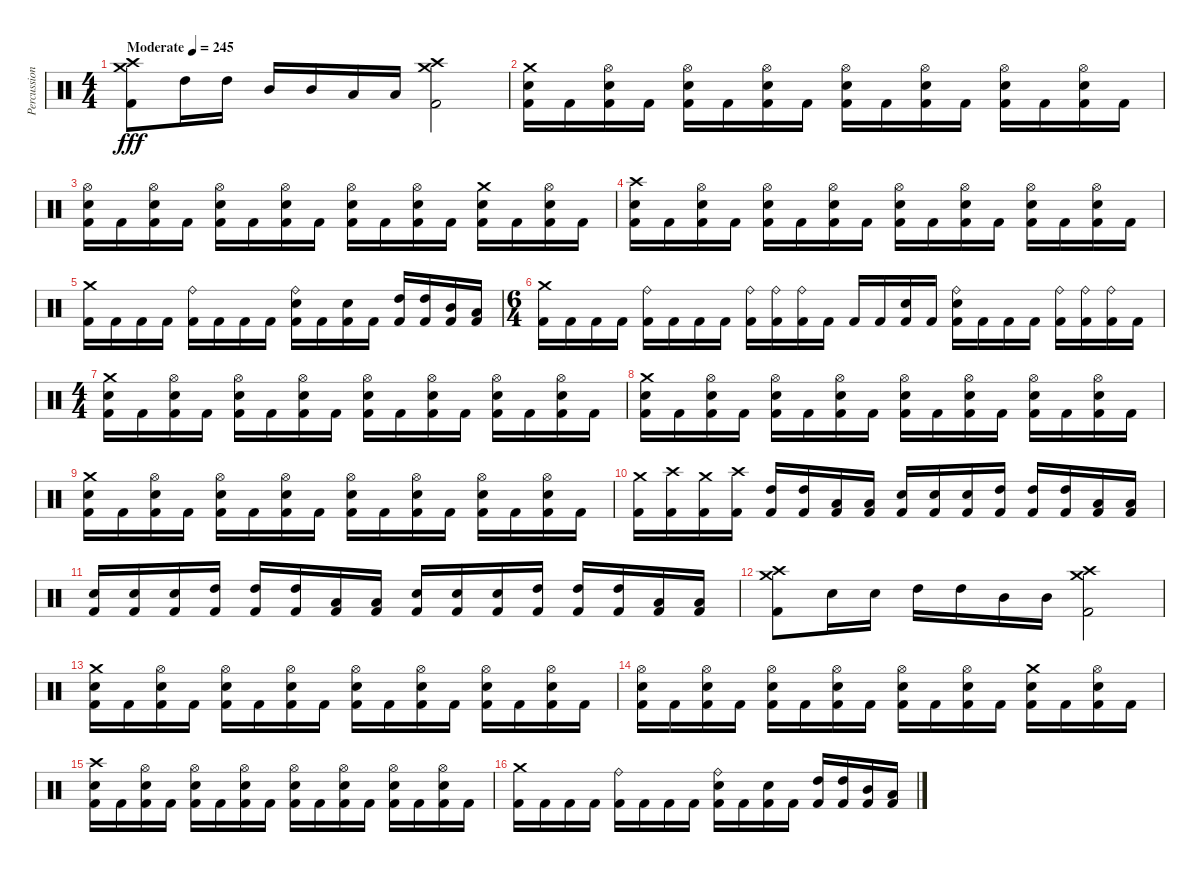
\track ("Percussion" "Percussion") {instrument percussion bank 177}
\staff {score}
\articulation defaults
\ts (4 4)
\tempo (245 "Moderate")
\clef neutral
\ks c
("Crash medium (hit)" "Crash high (hit)" "Kick (hit) 2").8{dy fff} "High Tom (hit)".16 "High Tom (hit)".16 "Mid Tom (hit)".16 "Mid Tom (hit)".16 "Low Tom (hit)".16 "Low Tom (hit)".16 ("Crash medium (hit)" "Crash high (hit)" "Kick (hit) 2").2 |
("Crash medium (hit)" "Electric Snare (hit)" "Kick (hit) 2").16 "Kick (hit) 2".16 ("Hi-Hat (open)" "Electric Snare (hit)" "Kick (hit) 2").16 "Kick (hit) 2".16 ("Hi-Hat (open)" "Electric Snare (hit)" "Kick (hit) 2").16 "Kick (hit) 2".16 ("Hi-Hat (open)" "Electric Snare (hit)" "Kick (hit) 2").16 "Kick (hit) 2".16 ("Hi-Hat (open)" "Electric Snare (hit)" "Kick (hit) 2").16 "Kick (hit) 2".16 ("Hi-Hat (open)" "Electric Snare (hit)" "Kick (hit) 2").16 "Kick (hit) 2".16 ("Hi-Hat (open)" "Electric Snare (hit)" "Kick (hit) 2").16 "Kick (hit) 2".16 ("Hi-Hat (open)" "Electric Snare (hit)" "Kick (hit) 2").16 "Kick (hit) 2".16 |
("Hi-Hat (open)" "Electric Snare (hit)" "Kick (hit) 2").16 "Kick (hit) 2".16 ("Hi-Hat (open)" "Electric Snare (hit)" "Kick (hit) 2").16 "Kick (hit) 2".16 ("Hi-Hat (open)" "Electric Snare (hit)" "Kick (hit) 2").16 "Kick (hit) 2".16 ("Hi-Hat (open)" "Electric Snare (hit)" "Kick (hit) 2").16 "Kick (hit) 2".16 ("Hi-Hat (open)" "Electric Snare (hit)" "Kick (hit) 2").16 "Kick (hit) 2".16 ("Hi-Hat (open)" "Electric Snare (hit)" "Kick (hit) 2").16 "Kick (hit) 2".16 ("Crash medium (hit)" "Electric Snare (hit)" "Kick (hit) 2").16 "Kick (hit) 2".16 ("Hi-Hat (open)" "Electric Snare (hit)" "Kick (hit) 2").16 "Kick (hit) 2".16 |
("Crash high (hit)" "Electric Snare (hit)" "Kick (hit) 2").16 "Kick (hit) 2".16 ("Hi-Hat (open)" "Electric Snare (hit)" "Kick (hit) 2").16 "Kick (hit) 2".16 ("Hi-Hat (open)" "Electric Snare (hit)" "Kick (hit) 2").16 "Kick (hit) 2".16 ("Hi-Hat (open)" "Electric Snare (hit)" "Kick (hit) 2").16 "Kick (hit) 2".16 ("Hi-Hat (open)" "Electric Snare (hit)" "Kick (hit) 2").16 "Kick (hit) 2".16 ("Hi-Hat (open)" "Electric Snare (hit)" "Kick (hit) 2").16 "Kick (hit) 2".16 ("Hi-Hat (open)" "Electric Snare (hit)" "Kick (hit) 2").16 "Kick (hit) 2".16 ("Hi-Hat (open)" "Electric Snare (hit)" "Kick (hit) 2").16 "Kick (hit) 2".16 |
("Crash medium (hit)" "Kick (hit) 2").16 "Kick (hit) 2".16 "Kick (hit) 2".16 "Kick (hit) 2".16 ("Ride (bell)" "Kick (hit) 2").16 "Kick (hit) 2".16 "Kick (hit) 2".16 "Kick (hit) 2".16 ("Ride (bell)" "Electric Snare (hit)" "Kick (hit) 2").16 "Kick (hit) 2".16 ("Electric Snare (hit)" "Kick (hit) 2").16 "Kick (hit) 2".16 ("High Tom (hit)" "Kick (hit) 2").16 ("High Tom (hit)" "Kick (hit) 2").16 ("Mid Tom (hit)" "Kick (hit) 2").16 ("Low Tom (hit)" "Kick (hit) 2").16 |
\ts (6 4)
("Crash medium (hit)" "Kick (hit) 2").16 "Kick (hit) 2".16 "Kick (hit) 2".16 "Kick (hit) 2".16 ("Ride (bell)" "Kick (hit) 2").16 "Kick (hit) 2".16 "Kick (hit) 2".16 "Kick (hit) 2".16 ("Ride (bell)" "Kick (hit) 2").16 ("Ride (bell)" "Kick (hit) 2").16 ("Ride (bell)" "Kick (hit) 2").16 "Kick (hit) 2".16 "Kick (hit) 2".16 "Kick (hit) 2".16 ("Electric Snare (hit)" "Kick (hit) 2").16 "Kick (hit) 2".16 ("Ride (bell)" "Electric Snare (hit)" "Kick (hit) 2").16 "Kick (hit) 2".16 "Kick (hit) 2".16 "Kick (hit) 2".16 ("Ride (bell)" "Kick (hit) 2").16 ("Ride (bell)" "Kick (hit) 2").16 ("Ride (bell)" "Kick (hit) 2").16 "Kick (hit) 2".16 |
\ts (4 4)
("Crash medium (hit)" "Electric Snare (hit)" "Kick (hit) 2").16 "Kick (hit) 2".16 ("Hi-Hat (open)" "Electric Snare (hit)" "Kick (hit) 2").16 "Kick (hit) 2".16 ("Hi-Hat (open)" "Electric Snare (hit)" "Kick (hit) 2").16 "Kick (hit) 2".16 ("Hi-Hat (open)" "Electric Snare (hit)" "Kick (hit) 2").16 "Kick (hit) 2".16 ("Hi-Hat (open)" "Electric Snare (hit)" "Kick (hit) 2").16 "Kick (hit) 2".16 ("Hi-Hat (open)" "Electric Snare (hit)" "Kick (hit) 2").16 "Kick (hit) 2".16 ("Hi-Hat (open)" "Electric Snare (hit)" "Kick (hit) 2").16 "Kick (hit) 2".16 ("Hi-Hat (open)" "Electric Snare (hit)" "Kick (hit) 2").16 "Kick (hit) 2".16 |
("Crash medium (hit)" "Electric Snare (hit)" "Kick (hit) 2").16 "Kick (hit) 2".16 ("Hi-Hat (open)" "Electric Snare (hit)" "Kick (hit) 2").16 "Kick (hit) 2".16 ("Hi-Hat (open)" "Electric Snare (hit)" "Kick (hit) 2").16 "Kick (hit) 2".16 ("Hi-Hat (open)" "Electric Snare (hit)" "Kick (hit) 2").16 "Kick (hit) 2".16 ("Hi-Hat (open)" "Electric Snare (hit)" "Kick (hit) 2").16 "Kick (hit) 2".16 ("Hi-Hat (open)" "Electric Snare (hit)" "Kick (hit) 2").16 "Kick (hit) 2".16 ("Hi-Hat (open)" "Electric Snare (hit)" "Kick (hit) 2").16 "Kick (hit) 2".16 ("Hi-Hat (open)" "Electric Snare (hit)" "Kick (hit) 2").16 "Kick (hit) 2".16 |
("Crash medium (hit)" "Electric Snare (hit)" "Kick (hit) 2").16 "Kick (hit) 2".16 ("Hi-Hat (open)" "Electric Snare (hit)" "Kick (hit) 2").16 "Kick (hit) 2".16 ("Hi-Hat (open)" "Electric Snare (hit)" "Kick (hit) 2").16 "Kick (hit) 2".16 ("Hi-Hat (open)" "Electric Snare (hit)" "Kick (hit) 2").16 "Kick (hit) 2".16 ("Hi-Hat (open)" "Electric Snare (hit)" "Kick (hit) 2").16 "Kick (hit) 2".16 ("Hi-Hat (open)" "Electric Snare (hit)" "Kick (hit) 2").16 "Kick (hit) 2".16 ("Hi-Hat (open)" "Electric Snare (hit)" "Kick (hit) 2").16 "Kick (hit) 2".16 ("Hi-Hat (open)" "Electric Snare (hit)" "Kick (hit) 2").16 "Kick (hit) 2".16 |
("Crash medium (hit)" "Kick (hit) 2").16 ("Crash high (hit)" "Kick (hit) 2").16 ("Crash medium (hit)" "Kick (hit) 2").16 ("Crash high (hit)" "Kick (hit) 2").16 ("High Tom (hit)" "Kick (hit) 2").16 ("High Tom (hit)" "Kick (hit) 2").16 ("Low Tom (hit)" "Kick (hit) 2").16 ("Low Tom (hit)" "Kick (hit) 2").16 ("Electric Snare (hit)" "Kick (hit) 2").16 ("Electric Snare (hit)" "Kick (hit) 2").16 ("Electric Snare (hit)" "Kick (hit) 2").16 ("High Tom (hit)" "Kick (hit) 2").16 ("High Tom (hit)" "Kick (hit) 2").16 ("High Tom (hit)" "Kick (hit) 2").16 ("Low Tom (hit)" "Kick (hit) 2").16 ("Low Tom (hit)" "Kick (hit) 2").16 |
("Electric Snare (hit)" "Kick (hit) 2").16 ("Electric Snare (hit)" "Kick (hit) 2").16 ("Electric Snare (hit)" "Kick (hit) 2").16 ("High Tom (hit)" "Kick (hit) 2").16 ("High Tom (hit)" "Kick (hit) 2").16 ("High Tom (hit)" "Kick (hit) 2").16 ("Low Tom (hit)" "Kick (hit) 2").16 ("Low Tom (hit)" "Kick (hit) 2").16 ("Electric Snare (hit)" "Kick (hit) 2").16 ("Electric Snare (hit)" "Kick (hit) 2").16 ("Electric Snare (hit)" "Kick (hit) 2").16 ("High Tom (hit)" "Kick (hit) 2").16 ("High Tom (hit)" "Kick (hit) 2").16 ("High Tom (hit)" "Kick (hit) 2").16 ("Low Tom (hit)" "Kick (hit) 2").16 ("Low Tom (hit)" "Kick (hit) 2").16 |
("Crash medium (hit)" "Crash high (hit)" "Kick (hit) 2").8 "Electric Snare (hit)".16 "Electric Snare (hit)".16 "High Tom (hit)".16 "High Tom (hit)".16 "Mid Tom (hit)".16 "Mid Tom (hit)".16 ("Crash medium (hit)" "Crash high (hit)" "Kick (hit) 2").2 |
("Crash medium (hit)" "Electric Snare (hit)" "Kick (hit) 2").16 "Kick (hit) 2".16 ("Hi-Hat (open)" "Electric Snare (hit)" "Kick (hit) 2").16 "Kick (hit) 2".16 ("Hi-Hat (open)" "Electric Snare (hit)" "Kick (hit) 2").16 "Kick (hit) 2".16 ("Hi-Hat (open)" "Electric Snare (hit)" "Kick (hit) 2").16 "Kick (hit) 2".16 ("Hi-Hat (open)" "Electric Snare (hit)" "Kick (hit) 2").16 "Kick (hit) 2".16 ("Hi-Hat (open)" "Electric Snare (hit)" "Kick (hit) 2").16 "Kick (hit) 2".16 ("Hi-Hat (open)" "Electric Snare (hit)" "Kick (hit) 2").16 "Kick (hit) 2".16 ("Hi-Hat (open)" "Electric Snare (hit)" "Kick (hit) 2").16 "Kick (hit) 2".16 |
("Hi-Hat (open)" "Electric Snare (hit)" "Kick (hit) 2").16 "Kick (hit) 2".16 ("Hi-Hat (open)" "Electric Snare (hit)" "Kick (hit) 2").16 "Kick (hit) 2".16 ("Hi-Hat (open)" "Electric Snare (hit)" "Kick (hit) 2").16 "Kick (hit) 2".16 ("Hi-Hat (open)" "Electric Snare (hit)" "Kick (hit) 2").16 "Kick (hit) 2".16 ("Hi-Hat (open)" "Electric Snare (hit)" "Kick (hit) 2").16 "Kick (hit) 2".16 ("Hi-Hat (open)" "Electric Snare (hit)" "Kick (hit) 2").16 "Kick (hit) 2".16 ("Crash medium (hit)" "Electric Snare (hit)" "Kick (hit) 2").16 "Kick (hit) 2".16 ("Hi-Hat (open)" "Electric Snare (hit)" "Kick (hit) 2").16 "Kick (hit) 2".16 |
("Crash high (hit)" "Electric Snare (hit)" "Kick (hit) 2").16 "Kick (hit) 2".16 ("Hi-Hat (open)" "Electric Snare (hit)" "Kick (hit) 2").16 "Kick (hit) 2".16 ("Hi-Hat (open)" "Electric Snare (hit)" "Kick (hit) 2").16 "Kick (hit) 2".16 ("Hi-Hat (open)" "Electric Snare (hit)" "Kick (hit) 2").16 "Kick (hit) 2".16 ("Hi-Hat (open)" "Electric Snare (hit)" "Kick (hit) 2").16 "Kick (hit) 2".16 ("Hi-Hat (open)" "Electric Snare (hit)" "Kick (hit) 2").16 "Kick (hit) 2".16 ("Hi-Hat (open)" "Electric Snare (hit)" "Kick (hit) 2").16 "Kick (hit) 2".16 ("Hi-Hat (open)" "Electric Snare (hit)" "Kick (hit) 2").16 "Kick (hit) 2".16 |
("Crash medium (hit)" "Kick (hit) 2").16 "Kick (hit) 2".16 "Kick (hit) 2".16 "Kick (hit) 2".16 ("Ride (bell)" "Kick (hit) 2").16 "Kick (hit) 2".16 "Kick (hit) 2".16 "Kick (hit) 2".16 ("Ride (bell)" "Electric Snare (hit)" "Kick (hit) 2").16 "Kick (hit) 2".16 ("Electric Snare (hit)" "Kick (hit) 2").16 "Kick (hit) 2".16 ("High Tom (hit)" "Kick (hit) 2").16 ("High Tom (hit)" "Kick (hit) 2").16 ("Mid Tom (hit)" "Kick (hit) 2").16 ("Low Tom (hit)" "Kick (hit) 2").16
